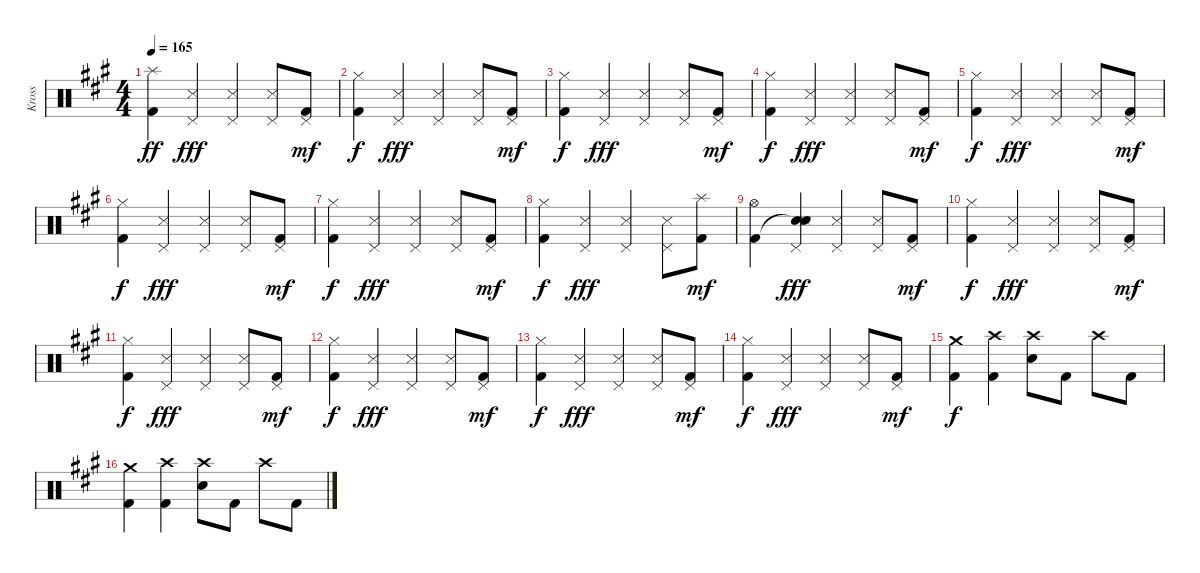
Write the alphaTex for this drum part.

\track ("Kross" "Kross") {instrument percussion}
\staff {score}
\articulation defaults
\ts (4 4)
\tempo 165
\clef neutral
\ks a
("Splash (hit)" "Kick (hit) 2").4{dy ff} ("Pedal Hi-Hat (hit)" "Metronome (hit)").4{dy fff} ("Pedal Hi-Hat (hit)" "Metronome (hit)").4 ("Pedal Hi-Hat (hit)" "Metronome (hit)").8 ("Pedal Hi-Hat (hit)" "Kick (hit) 2").8{dy mf} |
("Hi-Hat (closed)" "Kick (hit) 2").4{dy f} ("Pedal Hi-Hat (hit)" "Metronome (hit)").4{dy fff} ("Pedal Hi-Hat (hit)" "Metronome (hit)").4 ("Pedal Hi-Hat (hit)" "Metronome (hit)").8 ("Pedal Hi-Hat (hit)" "Kick (hit) 2").8{dy mf} |
("Hi-Hat (closed)" "Kick (hit) 2").4{dy f} ("Pedal Hi-Hat (hit)" "Metronome (hit)").4{dy fff} ("Pedal Hi-Hat (hit)" "Metronome (hit)").4 ("Pedal Hi-Hat (hit)" "Metronome (hit)").8 ("Pedal Hi-Hat (hit)" "Kick (hit) 2").8{dy mf} |
("Hi-Hat (closed)" "Kick (hit) 2").4{dy f} ("Pedal Hi-Hat (hit)" "Metronome (hit)").4{dy fff} ("Pedal Hi-Hat (hit)" "Metronome (hit)").4 ("Pedal Hi-Hat (hit)" "Metronome (hit)").8 ("Pedal Hi-Hat (hit)" "Kick (hit) 2").8{dy mf} |
("Hi-Hat (closed)" "Kick (hit) 2").4{dy f} ("Pedal Hi-Hat (hit)" "Metronome (hit)").4{dy fff} ("Pedal Hi-Hat (hit)" "Metronome (hit)").4 ("Pedal Hi-Hat (hit)" "Metronome (hit)").8 ("Pedal Hi-Hat (hit)" "Kick (hit) 2").8{dy mf} |
("Hi-Hat (closed)" "Kick (hit) 2").4{dy f} ("Pedal Hi-Hat (hit)" "Metronome (hit)").4{dy fff} ("Pedal Hi-Hat (hit)" "Metronome (hit)").4 ("Pedal Hi-Hat (hit)" "Metronome (hit)").8 ("Pedal Hi-Hat (hit)" "Kick (hit) 2").8{dy mf} |
("Hi-Hat (closed)" "Kick (hit) 2").4{dy f} ("Pedal Hi-Hat (hit)" "Metronome (hit)").4{dy fff} ("Pedal Hi-Hat (hit)" "Metronome (hit)").4 ("Pedal Hi-Hat (hit)" "Metronome (hit)").8 ("Pedal Hi-Hat (hit)" "Kick (hit) 2").8{dy mf} |
("Hi-Hat (closed)" "Kick (hit) 2").4{dy f} ("Pedal Hi-Hat (hit)" "Metronome (hit)").4{dy fff} ("Pedal Hi-Hat (hit)" "Metronome (hit)").4 ("Pedal Hi-Hat (hit)" "Metronome (hit)").8 ("Splash (hit)" "Kick (hit) 2").8{dy mf} |
("Hi-Hat (open)" "Kick (hit) 2").4 ("Pedal Hi-Hat (hit)" "Snare (hit)"{t} "Metronome (hit)" "Snare (hit)").4{dy fff} ("Pedal Hi-Hat (hit)" "Metronome (hit)").4 ("Pedal Hi-Hat (hit)" "Metronome (hit)").8 ("Pedal Hi-Hat (hit)" "Kick (hit) 2").8{dy mf} |
("Hi-Hat (closed)" "Kick (hit) 2").4{dy f} ("Pedal Hi-Hat (hit)" "Metronome (hit)").4{dy fff} ("Pedal Hi-Hat (hit)" "Metronome (hit)").4 ("Pedal Hi-Hat (hit)" "Metronome (hit)").8 ("Pedal Hi-Hat (hit)" "Kick (hit) 2").8{dy mf} |
("Hi-Hat (closed)" "Kick (hit) 2").4{dy f} ("Pedal Hi-Hat (hit)" "Metronome (hit)").4{dy fff} ("Pedal Hi-Hat (hit)" "Metronome (hit)").4 ("Pedal Hi-Hat (hit)" "Metronome (hit)").8 ("Pedal Hi-Hat (hit)" "Kick (hit) 2").8{dy mf} |
("Hi-Hat (closed)" "Kick (hit) 2").4{dy f} ("Pedal Hi-Hat (hit)" "Metronome (hit)").4{dy fff} ("Pedal Hi-Hat (hit)" "Metronome (hit)").4 ("Pedal Hi-Hat (hit)" "Metronome (hit)").8 ("Pedal Hi-Hat (hit)" "Kick (hit) 2").8{dy mf} |
("Hi-Hat (closed)" "Kick (hit) 2").4{dy f} ("Pedal Hi-Hat (hit)" "Metronome (hit)").4{dy fff} ("Pedal Hi-Hat (hit)" "Metronome (hit)").4 ("Pedal Hi-Hat (hit)" "Metronome (hit)").8 ("Pedal Hi-Hat (hit)" "Kick (hit) 2").8{dy mf} |
("Hi-Hat (closed)" "Kick (hit) 2").4{dy f} ("Pedal Hi-Hat (hit)" "Metronome (hit)").4{dy fff} ("Pedal Hi-Hat (hit)" "Metronome (hit)").4 ("Pedal Hi-Hat (hit)" "Metronome (hit)").8 ("Pedal Hi-Hat (hit)" "Kick (hit) 2").8{dy mf} |
("Crash medium (hit)" "Kick (hit) 2").4{dy f} ("Crash high (hit)" "Kick (hit) 2").4 ("Crash high (hit)" "Snare (hit) 2").8 "Kick (hit) 2".8 "Crash high (hit)".8 "Kick (hit) 2".8 |
("Crash medium (hit)" "Kick (hit) 2").4 ("Crash high (hit)" "Kick (hit) 2").4 ("Crash high (hit)" "Snare (hit) 2").8 "Kick (hit) 2".8 "Crash high (hit)".8 "Kick (hit) 2".8
